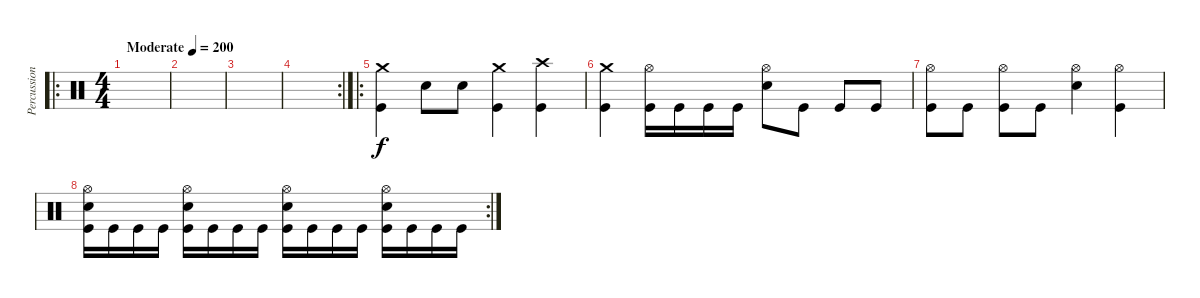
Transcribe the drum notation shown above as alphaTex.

\track ("Percussion" "Percussion") {instrument percussion}
\staff {score}
\articulation defaults
\ro
\ts (4 4)
\tempo (200 "Moderate")
\clef neutral
\ks c
|
|
|
\rc 2
|
\ro
("Crash medium (hit)" "Kick (hit)").4 "Snare (hit) 2".8 "Snare (hit) 2".8 ("Crash medium (hit)" "Kick (hit)").4 ("Crash high (hit)" "Kick (hit)").4 |
("Crash medium (hit)" "Kick (hit)").4 ("Hi-Hat (open)" "Kick (hit)").16 "Kick (hit)".16 "Kick (hit)".16 "Kick (hit)".16 ("Hi-Hat (open)" "Snare (hit) 2").8 "Kick (hit)".8 "Kick (hit)".8 "Kick (hit)".8 |
("Hi-Hat (open)" "Kick (hit)").8 "Kick (hit)".8 ("Hi-Hat (open)" "Kick (hit)").8 "Kick (hit)".8 ("Hi-Hat (open)" "Snare (hit) 2").4 ("Hi-Hat (open)" "Kick (hit)").4 |
\rc 2
("Hi-Hat (open)" "Snare (hit) 2" "Kick (hit)").16 "Kick (hit)".16 "Kick (hit)".16 "Kick (hit)".16 ("Hi-Hat (open)" "Snare (hit) 2" "Kick (hit)").16 "Kick (hit)".16 "Kick (hit)".16 "Kick (hit)".16 ("Hi-Hat (open)" "Snare (hit) 2" "Kick (hit)").16 "Kick (hit)".16 "Kick (hit)".16 "Kick (hit)".16 ("Hi-Hat (open)" "Snare (hit) 2" "Kick (hit)").16 "Kick (hit)".16 "Kick (hit)".16 "Kick (hit)".16
